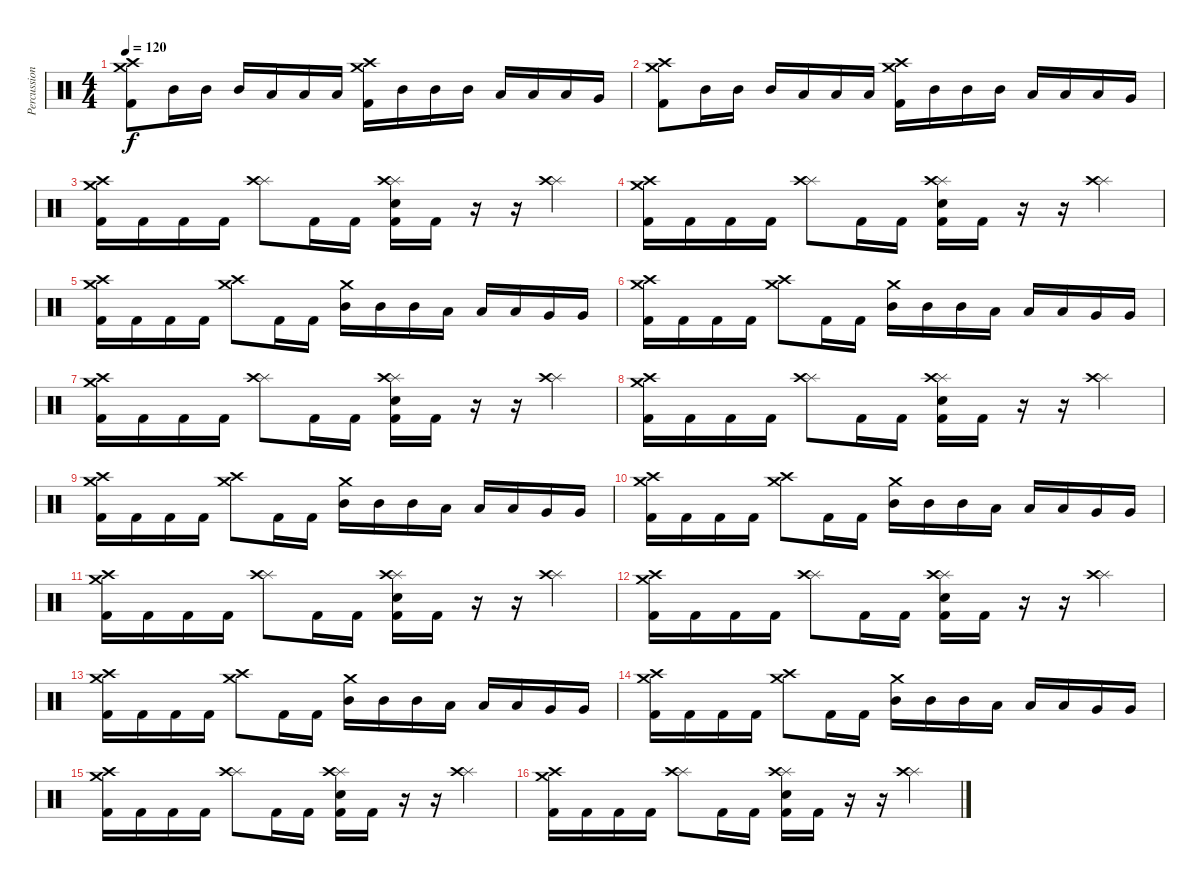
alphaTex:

\track ("Percussion" "Percussion") {instrument percussion}
\staff {score}
\articulation defaults
\ts (4 4)
\tempo 120
\clef neutral
\ks c
("Crash high (hit)" "Crash medium (hit)" "Kick (hit) 2").8{dy f} "Mid Tom (hit)".16 "Mid Tom (hit)".16 "Mid Tom (hit)".16 "Low Tom (hit)".16 "Low Tom (hit)".16 "Low Tom (hit)".16 ("Crash medium (hit)" "Crash high (hit)" "Kick (hit) 2").16 "Mid Tom (hit)".16 "Mid Tom (hit)".16 "Mid Tom (hit)".16 "Low Tom (hit)".16 "Low Tom (hit)".16 "Low Tom (hit)".16 "Very Low Tom (hit)".16 |
("Crash high (hit)" "Crash medium (hit)" "Kick (hit) 2").8 "Mid Tom (hit)".16 "Mid Tom (hit)".16 "Mid Tom (hit)".16 "Low Tom (hit)".16 "Low Tom (hit)".16 "Low Tom (hit)".16 ("Crash medium (hit)" "Crash high (hit)" "Kick (hit) 2").16 "Mid Tom (hit)".16 "Mid Tom (hit)".16 "Mid Tom (hit)".16 "Low Tom (hit)".16 "Low Tom (hit)".16 "Low Tom (hit)".16 "Very Low Tom (hit)".16 |
("Crash medium (hit)" "Crash high (hit)" "Kick (hit) 2").16 "Kick (hit) 2".16 "Kick (hit) 2".16 "Kick (hit) 2".16 ("Splash (hit)" "Crash high (hit)").8 "Kick (hit) 2".16 "Kick (hit) 2".16 ("Splash (hit)" "Crash high (hit)" "Snare (hit) 2" "Kick (hit) 2").16 "Kick (hit) 2".16 r.16 r.16 ("Splash (hit)" "Crash high (hit)").4 |
("Crash medium (hit)" "Crash high (hit)" "Kick (hit) 2").16 "Kick (hit) 2".16 "Kick (hit) 2".16 "Kick (hit) 2".16 ("Splash (hit)" "Crash high (hit)").8 "Kick (hit) 2".16 "Kick (hit) 2".16 ("Splash (hit)" "Crash high (hit)" "Snare (hit) 2" "Kick (hit) 2").16 "Kick (hit) 2".16 r.16 r.16 ("Splash (hit)" "Crash high (hit)").4 |
("Crash medium (hit)" "Crash high (hit)" "Kick (hit) 2").16 "Kick (hit) 2".16 "Kick (hit) 2".16 "Kick (hit) 2".16 ("Crash medium (hit)" "Crash high (hit)").8 "Kick (hit) 2".16 "Kick (hit) 2".16 ("Crash medium (hit)" "Mid Tom (hit)").16 "Mid Tom (hit)".16 "Mid Tom (hit)".16 "Low Tom (hit)".16 "Low Tom (hit)".16 "Low Tom (hit)".16 "Very Low Tom (hit)".16 "Very Low Tom (hit)".16 |
("Crash medium (hit)" "Crash high (hit)" "Kick (hit) 2").16 "Kick (hit) 2".16 "Kick (hit) 2".16 "Kick (hit) 2".16 ("Crash medium (hit)" "Crash high (hit)").8 "Kick (hit) 2".16 "Kick (hit) 2".16 ("Crash medium (hit)" "Mid Tom (hit)").16 "Mid Tom (hit)".16 "Mid Tom (hit)".16 "Low Tom (hit)".16 "Low Tom (hit)".16 "Low Tom (hit)".16 "Very Low Tom (hit)".16 "Very Low Tom (hit)".16 |
("Crash medium (hit)" "Crash high (hit)" "Kick (hit) 2").16 "Kick (hit) 2".16 "Kick (hit) 2".16 "Kick (hit) 2".16 ("Splash (hit)" "Crash high (hit)").8 "Kick (hit) 2".16 "Kick (hit) 2".16 ("Splash (hit)" "Crash high (hit)" "Snare (hit) 2" "Kick (hit) 2").16 "Kick (hit) 2".16 r.16 r.16 ("Splash (hit)" "Crash high (hit)").4 |
("Crash medium (hit)" "Crash high (hit)" "Kick (hit) 2").16 "Kick (hit) 2".16 "Kick (hit) 2".16 "Kick (hit) 2".16 ("Splash (hit)" "Crash high (hit)").8 "Kick (hit) 2".16 "Kick (hit) 2".16 ("Splash (hit)" "Crash high (hit)" "Snare (hit) 2" "Kick (hit) 2").16 "Kick (hit) 2".16 r.16 r.16 ("Splash (hit)" "Crash high (hit)").4 |
("Crash medium (hit)" "Crash high (hit)" "Kick (hit) 2").16 "Kick (hit) 2".16 "Kick (hit) 2".16 "Kick (hit) 2".16 ("Crash medium (hit)" "Crash high (hit)").8 "Kick (hit) 2".16 "Kick (hit) 2".16 ("Crash medium (hit)" "Mid Tom (hit)").16 "Mid Tom (hit)".16 "Mid Tom (hit)".16 "Low Tom (hit)".16 "Low Tom (hit)".16 "Low Tom (hit)".16 "Very Low Tom (hit)".16 "Very Low Tom (hit)".16 |
("Crash medium (hit)" "Crash high (hit)" "Kick (hit) 2").16 "Kick (hit) 2".16 "Kick (hit) 2".16 "Kick (hit) 2".16 ("Crash medium (hit)" "Crash high (hit)").8 "Kick (hit) 2".16 "Kick (hit) 2".16 ("Crash medium (hit)" "Mid Tom (hit)").16 "Mid Tom (hit)".16 "Mid Tom (hit)".16 "Low Tom (hit)".16 "Low Tom (hit)".16 "Low Tom (hit)".16 "Very Low Tom (hit)".16 "Very Low Tom (hit)".16 |
("Crash medium (hit)" "Crash high (hit)" "Kick (hit) 2").16 "Kick (hit) 2".16 "Kick (hit) 2".16 "Kick (hit) 2".16 ("Splash (hit)" "Crash high (hit)").8 "Kick (hit) 2".16 "Kick (hit) 2".16 ("Splash (hit)" "Crash high (hit)" "Snare (hit) 2" "Kick (hit) 2").16 "Kick (hit) 2".16 r.16 r.16 ("Splash (hit)" "Crash high (hit)").4 |
("Crash medium (hit)" "Crash high (hit)" "Kick (hit) 2").16 "Kick (hit) 2".16 "Kick (hit) 2".16 "Kick (hit) 2".16 ("Splash (hit)" "Crash high (hit)").8 "Kick (hit) 2".16 "Kick (hit) 2".16 ("Splash (hit)" "Crash high (hit)" "Snare (hit) 2" "Kick (hit) 2").16 "Kick (hit) 2".16 r.16 r.16 ("Splash (hit)" "Crash high (hit)").4 |
("Crash medium (hit)" "Crash high (hit)" "Kick (hit) 2").16 "Kick (hit) 2".16 "Kick (hit) 2".16 "Kick (hit) 2".16 ("Crash medium (hit)" "Crash high (hit)").8 "Kick (hit) 2".16 "Kick (hit) 2".16 ("Crash medium (hit)" "Mid Tom (hit)").16 "Mid Tom (hit)".16 "Mid Tom (hit)".16 "Low Tom (hit)".16 "Low Tom (hit)".16 "Low Tom (hit)".16 "Very Low Tom (hit)".16 "Very Low Tom (hit)".16 |
("Crash medium (hit)" "Crash high (hit)" "Kick (hit) 2").16 "Kick (hit) 2".16 "Kick (hit) 2".16 "Kick (hit) 2".16 ("Crash medium (hit)" "Crash high (hit)").8 "Kick (hit) 2".16 "Kick (hit) 2".16 ("Crash medium (hit)" "Mid Tom (hit)").16 "Mid Tom (hit)".16 "Mid Tom (hit)".16 "Low Tom (hit)".16 "Low Tom (hit)".16 "Low Tom (hit)".16 "Very Low Tom (hit)".16 "Very Low Tom (hit)".16 |
("Crash medium (hit)" "Crash high (hit)" "Kick (hit) 2").16 "Kick (hit) 2".16 "Kick (hit) 2".16 "Kick (hit) 2".16 ("Splash (hit)" "Crash high (hit)").8 "Kick (hit) 2".16 "Kick (hit) 2".16 ("Splash (hit)" "Crash high (hit)" "Snare (hit) 2" "Kick (hit) 2").16 "Kick (hit) 2".16 r.16 r.16 ("Splash (hit)" "Crash high (hit)").4 |
("Crash medium (hit)" "Crash high (hit)" "Kick (hit) 2").16 "Kick (hit) 2".16 "Kick (hit) 2".16 "Kick (hit) 2".16 ("Splash (hit)" "Crash high (hit)").8 "Kick (hit) 2".16 "Kick (hit) 2".16 ("Splash (hit)" "Crash high (hit)" "Snare (hit) 2" "Kick (hit) 2").16 "Kick (hit) 2".16 r.16 r.16 ("Splash (hit)" "Crash high (hit)").4
